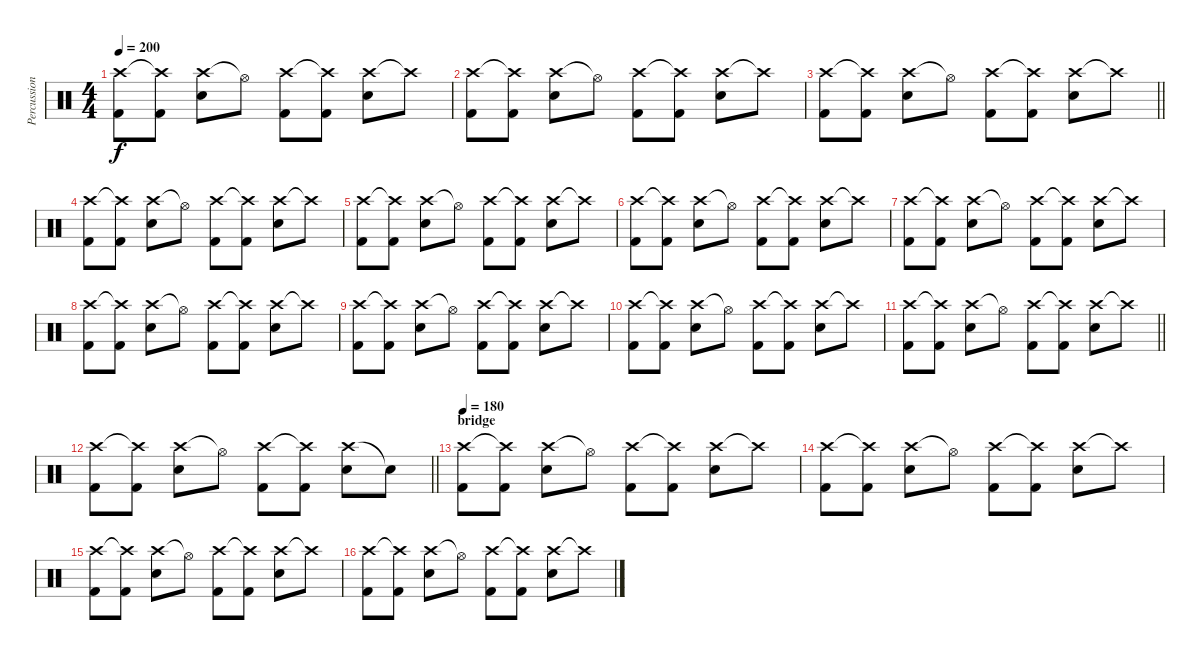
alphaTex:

\track ("Percussion" "Percussion") {instrument percussion}
\staff {score}
\articulation defaults
\ts (4 4)
\tempo 200
\clef neutral
\ks c
("Crash high (hit)" "Kick (hit) 2").8{dy f} ("Crash high (hit)"{t} "Kick (hit) 2").8 ("Crash high (hit)" "Snare (hit) 2").8 "Hi-Hat (open)"{t}.8 ("Crash high (hit)" "Kick (hit) 2").8 ("Crash high (hit)"{t} "Kick (hit) 2").8 ("Crash high (hit)" "Snare (hit) 2").8 "Crash high (hit)"{t}.8 |
("Crash high (hit)" "Kick (hit) 2").8 ("Crash high (hit)"{t} "Kick (hit) 2").8 ("Crash high (hit)" "Snare (hit) 2").8 "Hi-Hat (open)"{t}.8 ("Crash high (hit)" "Kick (hit) 2").8 ("Crash high (hit)"{t} "Kick (hit) 2").8 ("Crash high (hit)" "Snare (hit) 2").8 "Crash high (hit)"{t}.8 |
\barLineRight lightlight
("Crash high (hit)" "Kick (hit) 2").8 ("Crash high (hit)"{t} "Kick (hit) 2").8 ("Crash high (hit)" "Snare (hit) 2").8 "Hi-Hat (open)"{t}.8 ("Crash high (hit)" "Kick (hit) 2").8 ("Crash high (hit)"{t} "Kick (hit) 2").8 ("Crash high (hit)" "Snare (hit) 2").8 "Crash high (hit)"{t}.8 |
("Crash high (hit)" "Kick (hit) 2").8 ("Crash high (hit)"{t} "Kick (hit) 2").8 ("Crash high (hit)" "Snare (hit) 2").8 "Hi-Hat (open)"{t}.8 ("Crash high (hit)" "Kick (hit) 2").8 ("Crash high (hit)"{t} "Kick (hit) 2").8 ("Crash high (hit)" "Snare (hit) 2").8 "Crash high (hit)"{t}.8 |
("Crash high (hit)" "Kick (hit) 2").8 ("Crash high (hit)"{t} "Kick (hit) 2").8 ("Crash high (hit)" "Snare (hit) 2").8 "Hi-Hat (open)"{t}.8 ("Crash high (hit)" "Kick (hit) 2").8 ("Crash high (hit)"{t} "Kick (hit) 2").8 ("Crash high (hit)" "Snare (hit) 2").8 "Crash high (hit)"{t}.8 |
("Crash high (hit)" "Kick (hit) 2").8 ("Crash high (hit)"{t} "Kick (hit) 2").8 ("Crash high (hit)" "Snare (hit) 2").8 "Hi-Hat (open)"{t}.8 ("Crash high (hit)" "Kick (hit) 2").8 ("Crash high (hit)"{t} "Kick (hit) 2").8 ("Crash high (hit)" "Snare (hit) 2").8 "Crash high (hit)"{t}.8 |
("Crash high (hit)" "Kick (hit) 2").8 ("Crash high (hit)"{t} "Kick (hit) 2").8 ("Crash high (hit)" "Snare (hit) 2").8 "Hi-Hat (open)"{t}.8 ("Crash high (hit)" "Kick (hit) 2").8 ("Crash high (hit)"{t} "Kick (hit) 2").8 ("Crash high (hit)" "Snare (hit) 2").8 "Crash high (hit)"{t}.8 |
("Crash high (hit)" "Kick (hit) 2").8 ("Crash high (hit)"{t} "Kick (hit) 2").8 ("Crash high (hit)" "Snare (hit) 2").8 "Hi-Hat (open)"{t}.8 ("Crash high (hit)" "Kick (hit) 2").8 ("Crash high (hit)"{t} "Kick (hit) 2").8 ("Crash high (hit)" "Snare (hit) 2").8 "Crash high (hit)"{t}.8 |
("Crash high (hit)" "Kick (hit) 2").8 ("Crash high (hit)"{t} "Kick (hit) 2").8 ("Crash high (hit)" "Snare (hit) 2").8 "Hi-Hat (open)"{t}.8 ("Crash high (hit)" "Kick (hit) 2").8 ("Crash high (hit)"{t} "Kick (hit) 2").8 ("Crash high (hit)" "Snare (hit) 2").8 "Crash high (hit)"{t}.8 |
("Crash high (hit)" "Kick (hit) 2").8 ("Crash high (hit)"{t} "Kick (hit) 2").8 ("Crash high (hit)" "Snare (hit) 2").8 "Hi-Hat (open)"{t}.8 ("Crash high (hit)" "Kick (hit) 2").8 ("Crash high (hit)"{t} "Kick (hit) 2").8 ("Crash high (hit)" "Snare (hit) 2").8 "Crash high (hit)"{t}.8 |
\barLineRight lightlight
("Crash high (hit)" "Kick (hit) 2").8 ("Crash high (hit)"{t} "Kick (hit) 2").8 ("Crash high (hit)" "Snare (hit) 2").8 "Hi-Hat (open)"{t}.8 ("Crash high (hit)" "Kick (hit) 2").8 ("Crash high (hit)"{t} "Kick (hit) 2").8 ("Crash high (hit)" "Snare (hit) 2").8 "Crash high (hit)"{t}.8 |
\barLineRight lightlight
("Crash high (hit)" "Kick (hit) 2").8 ("Crash high (hit)"{t} "Kick (hit) 2").8 ("Crash high (hit)" "Snare (hit) 2").8 "Hi-Hat (open)"{t}.8 ("Crash high (hit)" "Kick (hit) 2").8 ("Crash high (hit)"{t} "Kick (hit) 2").8 ("Crash high (hit)" "Snare (hit) 2").8 "Snare (hit)"{t}.8 |
\section ("" "bridge")
\tempo 180
("Crash high (hit)" "Kick (hit) 2").8 ("Crash high (hit)"{t} "Kick (hit) 2").8 ("Crash high (hit)" "Snare (hit) 2").8 "Hi-Hat (open)"{t}.8 ("Crash high (hit)" "Kick (hit) 2").8 ("Crash high (hit)"{t} "Kick (hit) 2").8 ("Crash high (hit)" "Snare (hit) 2").8 "Crash high (hit)"{t}.8 |
("Crash high (hit)" "Kick (hit) 2").8 ("Crash high (hit)"{t} "Kick (hit) 2").8 ("Crash high (hit)" "Snare (hit) 2").8 "Hi-Hat (open)"{t}.8 ("Crash high (hit)" "Kick (hit) 2").8 ("Crash high (hit)"{t} "Kick (hit) 2").8 ("Crash high (hit)" "Snare (hit) 2").8 "Crash high (hit)"{t}.8 |
("Crash high (hit)" "Kick (hit) 2").8 ("Crash high (hit)"{t} "Kick (hit) 2").8 ("Crash high (hit)" "Snare (hit) 2").8 "Hi-Hat (open)"{t}.8 ("Crash high (hit)" "Kick (hit) 2").8 ("Crash high (hit)"{t} "Kick (hit) 2").8 ("Crash high (hit)" "Snare (hit) 2").8 "Crash high (hit)"{t}.8 |
("Crash high (hit)" "Kick (hit) 2").8 ("Crash high (hit)"{t} "Kick (hit) 2").8 ("Crash high (hit)" "Snare (hit) 2").8 "Hi-Hat (open)"{t}.8 ("Crash high (hit)" "Kick (hit) 2").8 ("Crash high (hit)"{t} "Kick (hit) 2").8 ("Crash high (hit)" "Snare (hit) 2").8 "Crash high (hit)"{t}.8
